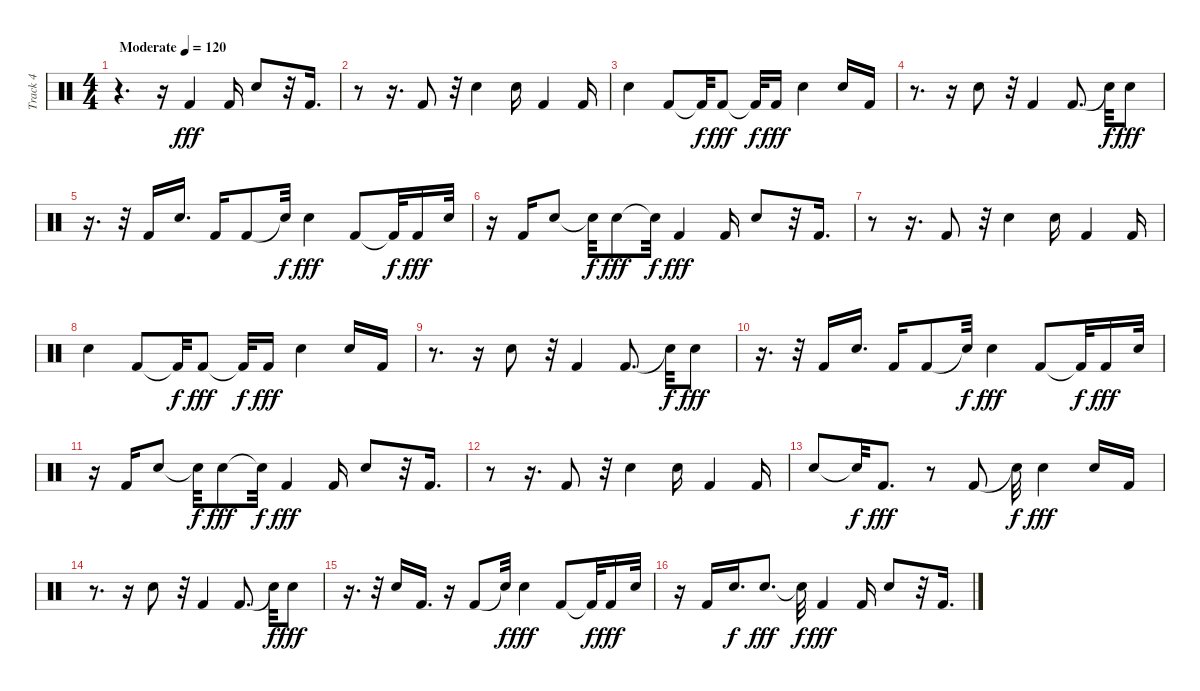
\track ("Track 4" "Track 4") {instrument percussion}
\staff {score}
\articulation defaults
\ts (4 4)
\tempo (120 "Moderate")
\clef neutral
\ks c
r.4{d dy fff} r.16 "Kick (hit) 2".4 "Kick (hit) 2".16 "Snare (hit) 2".8 r.32 "Kick (hit) 2".16{d} |
r.8 r.16{d} "Kick (hit) 2".8 r.32 "Snare (hit) 2".4 "Snare (hit) 2".16 "Kick (hit) 2".4 "Kick (hit) 2".16 |
"Snare (hit) 2".4 "Kick (hit) 2".8 "Kick (hit) 2"{t}.32{dy f} "Kick (hit) 2".8{dy fff} "Kick (hit) 2"{t}.32{dy f} "Kick (hit) 2".16{dy fff} "Snare (hit) 2".4 "Snare (hit) 2".16 "Kick (hit) 2".16 |
r.8{d} r.16 "Snare (hit) 2".8 r.32 "Kick (hit) 2".4 "Kick (hit) 2".8{d} "Snare (hit)"{t}.32{dy f} "Snare (hit) 2".8{dy fff} |
r.16{d} r.32 "Kick (hit) 2".16 "Snare (hit) 2".16{d} "Kick (hit) 2".16 "Kick (hit) 2".8 "Snare (hit)"{t}.32{dy f} "Snare (hit) 2".4{dy fff} "Kick (hit) 2".8 "Kick (hit) 2"{t}.32{dy f} "Kick (hit) 2".16{dy fff} "Snare (hit) 2".32 |
r.16 "Kick (hit) 2".16 "Snare (hit) 2".8 "Snare (hit) 2"{t}.32{dy f} "Snare (hit) 2".8{dy fff} "Snare (hit)"{t}.32{dy f} "Kick (hit) 2".4{dy fff} "Kick (hit) 2".16 "Snare (hit) 2".8 r.32 "Kick (hit) 2".16{d} |
r.8 r.16{d} "Kick (hit) 2".8 r.32 "Snare (hit) 2".4 "Snare (hit) 2".16 "Kick (hit) 2".4 "Kick (hit) 2".16 |
"Snare (hit) 2".4 "Kick (hit) 2".8 "Kick (hit) 2"{t}.32{dy f} "Kick (hit) 2".8{dy fff} "Kick (hit) 2"{t}.32{dy f} "Kick (hit) 2".16{dy fff} "Snare (hit) 2".4 "Snare (hit) 2".16 "Kick (hit) 2".16 |
r.8{d} r.16 "Snare (hit) 2".8 r.32 "Kick (hit) 2".4 "Kick (hit) 2".8{d} "Snare (hit)"{t}.32{dy f} "Snare (hit) 2".8{dy fff} |
r.16{d} r.32 "Kick (hit) 2".16 "Snare (hit) 2".16{d} "Kick (hit) 2".16 "Kick (hit) 2".8 "Snare (hit)"{t}.32{dy f} "Snare (hit) 2".4{dy fff} "Kick (hit) 2".8 "Kick (hit) 2"{t}.32{dy f} "Kick (hit) 2".16{dy fff} "Snare (hit) 2".32 |
r.16 "Kick (hit) 2".16 "Snare (hit) 2".8 "Snare (hit) 2"{t}.32{dy f} "Snare (hit) 2".8{dy fff} "Snare (hit)"{t}.32{dy f} "Kick (hit) 2".4{dy fff} "Kick (hit) 2".16 "Snare (hit) 2".8 r.32 "Kick (hit) 2".16{d} |
r.8 r.16{d} "Kick (hit) 2".8 r.32 "Snare (hit) 2".4 "Snare (hit) 2".16 "Kick (hit) 2".4 "Kick (hit) 2".16 |
"Snare (hit) 2".8 "Snare (hit)"{t}.32{dy f} "Kick (hit) 2".8{d dy fff} r.8 "Kick (hit) 2".8 "Snare (hit)"{t}.32{dy f} "Snare (hit) 2".4{dy fff} "Snare (hit) 2".16 "Kick (hit) 2".16 |
r.8{d} r.16 "Snare (hit) 2".8 r.32 "Kick (hit) 2".4 "Kick (hit) 2".8{d} "Snare (hit)"{t}.32{dy f} "Snare (hit) 2".8{dy fff} |
r.16{d} r.32 "Snare (hit) 2".16 "Kick (hit) 2".16{d} r.16 "Kick (hit) 2".8 "Snare (hit)"{t}.32{dy f} "Snare (hit) 2".4{dy fff} "Kick (hit) 2".8 "Kick (hit) 2"{t}.32{dy f} "Kick (hit) 2".16{dy fff} "Snare (hit) 2".32 |
r.16 "Kick (hit) 2".16 "Snare (hit) 2".16{d dy f} "Snare (hit) 2".8{d dy fff} "Snare (hit)"{t}.32{dy f} "Kick (hit) 2".4{dy fff} "Kick (hit) 2".16 "Snare (hit) 2".8 r.32 "Kick (hit) 2".16{d}
